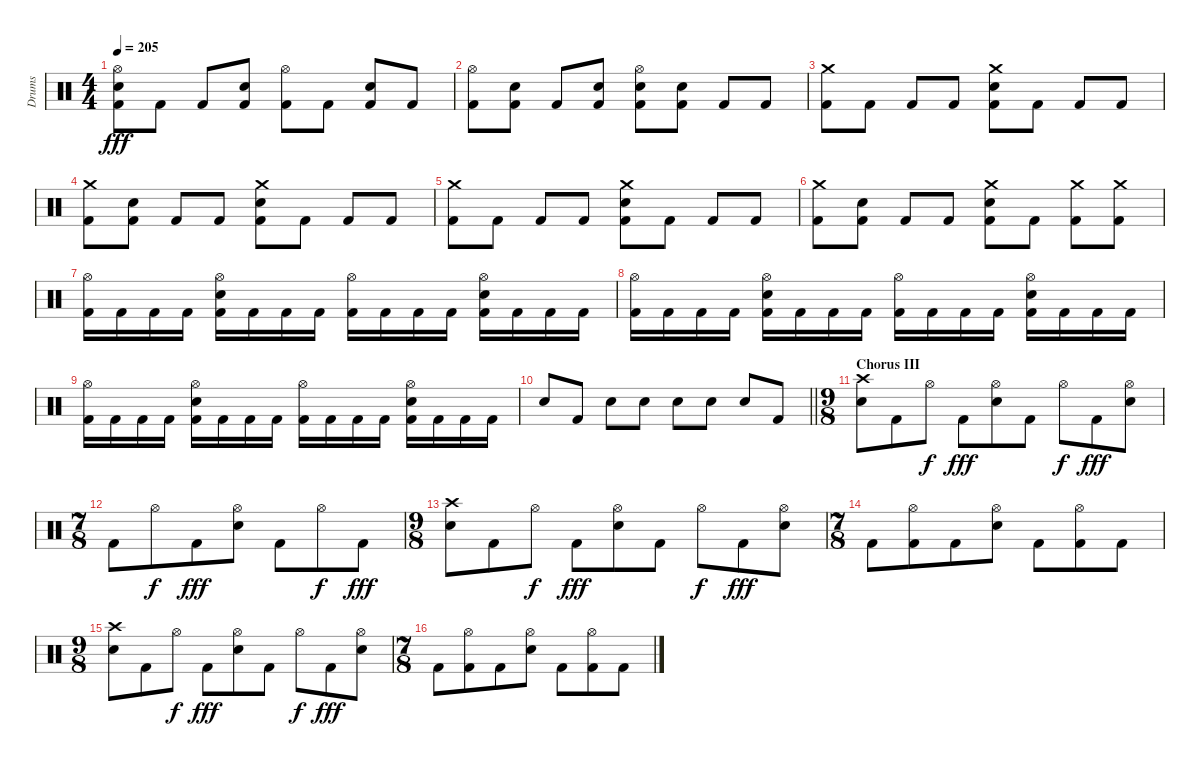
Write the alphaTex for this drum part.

\track ("Drums" "Drums") {instrument percussion}
\staff {score}
\articulation defaults
\ts (4 4)
\tempo 205
\clef neutral
\ks c
("Hi-Hat (open)" "Snare (hit) 2" "Kick (hit) 2").8{dy fff} "Kick (hit) 2".8 "Kick (hit) 2".8 ("Snare (hit) 2" "Kick (hit) 2").8 ("Hi-Hat (open)" "Kick (hit) 2").8 "Kick (hit) 2".8 ("Snare (hit) 2" "Kick (hit) 2").8 "Kick (hit) 2".8 |
("Hi-Hat (open)" "Kick (hit) 2").8 ("Snare (hit) 2" "Kick (hit) 2").8 "Kick (hit) 2".8 ("Snare (hit) 2" "Kick (hit) 2").8 ("Hi-Hat (open)" "Snare (hit) 2" "Kick (hit) 2").8 ("Snare (hit) 2" "Kick (hit) 2").8 "Kick (hit) 2".8 "Kick (hit) 2".8 |
("Crash medium (hit)" "Kick (hit) 2").8 "Kick (hit) 2".8 "Kick (hit) 2".8 "Kick (hit) 2".8 ("Crash medium (hit)" "Snare (hit) 2" "Kick (hit) 2").8 "Kick (hit) 2".8 "Kick (hit) 2".8 "Kick (hit) 2".8 |
("Crash medium (hit)" "Kick (hit) 2").8 ("Snare (hit) 2" "Kick (hit) 2").8 "Kick (hit) 2".8 "Kick (hit) 2".8 ("Crash medium (hit)" "Snare (hit) 2" "Kick (hit) 2").8 "Kick (hit) 2".8 "Kick (hit) 2".8 "Kick (hit) 2".8 |
("Crash medium (hit)" "Kick (hit) 2").8 "Kick (hit) 2".8 "Kick (hit) 2".8 "Kick (hit) 2".8 ("Crash medium (hit)" "Snare (hit) 2" "Kick (hit) 2").8 "Kick (hit) 2".8 "Kick (hit) 2".8 "Kick (hit) 2".8 |
("Crash medium (hit)" "Kick (hit) 2").8 ("Snare (hit) 2" "Kick (hit) 2").8 "Kick (hit) 2".8 "Kick (hit) 2".8 ("Crash medium (hit)" "Snare (hit) 2" "Kick (hit) 2").8 "Kick (hit) 2".8 ("Crash medium (hit)" "Kick (hit) 2").8 ("Crash medium (hit)" "Kick (hit) 2").8 |
("Hi-Hat (open)" "Kick (hit) 2").16 "Kick (hit) 2".16 "Kick (hit) 2".16 "Kick (hit) 2".16 ("Hi-Hat (open)" "Snare (hit) 2" "Kick (hit) 2").16 "Kick (hit) 2".16 "Kick (hit) 2".16 "Kick (hit) 2".16 ("Hi-Hat (open)" "Kick (hit) 2").16 "Kick (hit) 2".16 "Kick (hit) 2".16 "Kick (hit) 2".16 ("Hi-Hat (open)" "Snare (hit) 2" "Kick (hit) 2").16 "Kick (hit) 2".16 "Kick (hit) 2".16 "Kick (hit) 2".16 |
("Hi-Hat (open)" "Kick (hit) 2").16 "Kick (hit) 2".16 "Kick (hit) 2".16 "Kick (hit) 2".16 ("Hi-Hat (open)" "Snare (hit) 2" "Kick (hit) 2").16 "Kick (hit) 2".16 "Kick (hit) 2".16 "Kick (hit) 2".16 ("Hi-Hat (open)" "Kick (hit) 2").16 "Kick (hit) 2".16 "Kick (hit) 2".16 "Kick (hit) 2".16 ("Hi-Hat (open)" "Snare (hit) 2" "Kick (hit) 2").16 "Kick (hit) 2".16 "Kick (hit) 2".16 "Kick (hit) 2".16 |
("Hi-Hat (open)" "Kick (hit) 2").16 "Kick (hit) 2".16 "Kick (hit) 2".16 "Kick (hit) 2".16 ("Hi-Hat (open)" "Snare (hit) 2" "Kick (hit) 2").16 "Kick (hit) 2".16 "Kick (hit) 2".16 "Kick (hit) 2".16 ("Hi-Hat (open)" "Kick (hit) 2").16 "Kick (hit) 2".16 "Kick (hit) 2".16 "Kick (hit) 2".16 ("Hi-Hat (open)" "Snare (hit) 2" "Kick (hit) 2").16 "Kick (hit) 2".16 "Kick (hit) 2".16 "Kick (hit) 2".16 |
\barLineRight lightlight "Snare (hit) 2".8 "Kick (hit) 2".8 "Snare (hit) 2".8 "Snare (hit) 2".8 "Snare (hit) 2".8 "Snare (hit) 2".8 "Snare (hit) 2".8 "Kick (hit) 2".8
|
\ts (9 8)
\section ("" "Chorus III")
("Crash high (hit)" "Snare (hit) 2").8 "Kick (hit) 2".8 "Hi-Hat (open)".8{dy f} "Kick (hit) 2".8{dy fff} ("Hi-Hat (open)" "Snare (hit) 2").8 "Kick (hit) 2".8 "Hi-Hat (open)".8{dy f} "Kick (hit) 2".8{dy fff} ("Hi-Hat (open)" "Snare (hit) 2").8 |
\ts (7 8)
"Kick (hit) 2".8 "Hi-Hat (open)".8{dy f} "Kick (hit) 2".8{dy fff} ("Hi-Hat (open)" "Snare (hit) 2").8 "Kick (hit) 2".8 "Hi-Hat (open)".8{dy f} "Kick (hit) 2".8{dy fff} |
\ts (9 8)
("Crash high (hit)" "Snare (hit) 2").8 "Kick (hit) 2".8 "Hi-Hat (open)".8{dy f} "Kick (hit) 2".8{dy fff} ("Hi-Hat (open)" "Snare (hit) 2").8 "Kick (hit) 2".8 "Hi-Hat (open)".8{dy f} "Kick (hit) 2".8{dy fff} ("Hi-Hat (open)" "Snare (hit) 2").8 |
\ts (7 8)
"Kick (hit) 2".8 ("Hi-Hat (open)" "Kick (hit) 2").8 "Kick (hit) 2".8 ("Hi-Hat (open)" "Snare (hit) 2").8 "Kick (hit) 2".8 ("Hi-Hat (open)" "Kick (hit) 2").8 "Kick (hit) 2".8 |
\ts (9 8)
("Crash high (hit)" "Snare (hit) 2").8 "Kick (hit) 2".8 "Hi-Hat (open)".8{dy f} "Kick (hit) 2".8{dy fff} ("Hi-Hat (open)" "Snare (hit) 2").8 "Kick (hit) 2".8 "Hi-Hat (open)".8{dy f} "Kick (hit) 2".8{dy fff} ("Hi-Hat (open)" "Snare (hit) 2").8 |
\ts (7 8)
"Kick (hit) 2".8 ("Hi-Hat (open)" "Kick (hit) 2").8 "Kick (hit) 2".8 ("Hi-Hat (open)" "Snare (hit) 2").8 "Kick (hit) 2".8 ("Hi-Hat (open)" "Kick (hit) 2").8 "Kick (hit) 2".8
